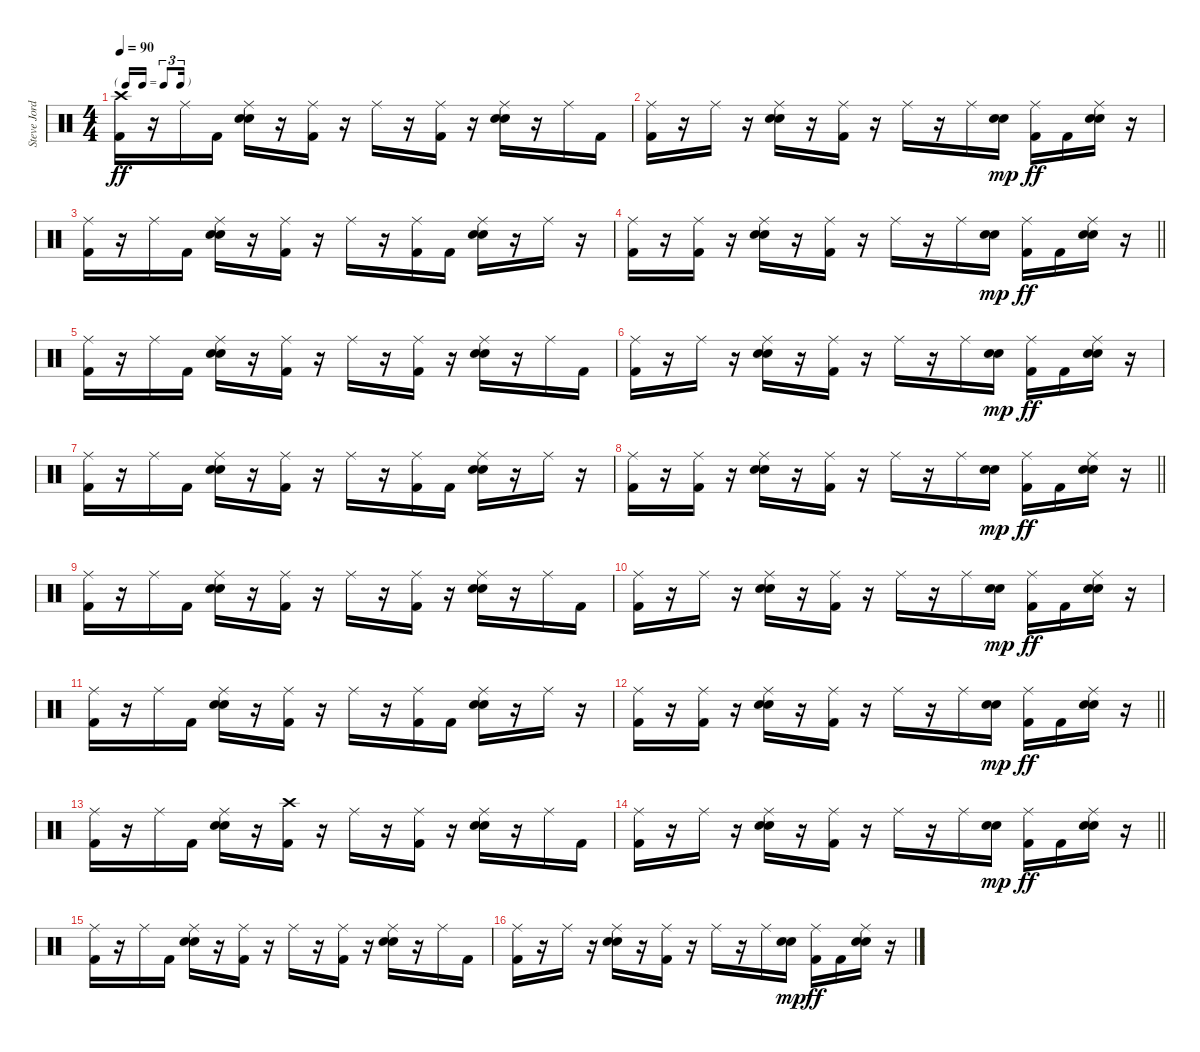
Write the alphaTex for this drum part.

\track ("Steve Jordan" "Steve Jord") {instrument percussion}
\staff {score}
\articulation defaults
\ts (4 4)
\tf triplet16th
\tempo 90
\clef neutral
\ks c
("Crash high (hit)" "Kick (hit) 2").16{dy ff} r.16 "Ride (middle)".16 "Kick (hit) 2".16 ("Ride (middle)" "Electric Snare (hit)" "Snare (hit) 2").16 r.16 ("Ride (middle)" "Kick (hit) 2").16 r.16 "Ride (middle)".16 r.16 ("Ride (middle)" "Kick (hit) 2").16 r.16 ("Ride (middle)" "Electric Snare (hit)" "Snare (hit) 2").16 r.16 "Ride (middle)".16 "Kick (hit) 2".16 |
("Ride (middle)" "Kick (hit) 2").16 r.16 "Ride (middle)".16 r.16 ("Ride (middle)" "Electric Snare (hit)" "Snare (hit) 2").16 r.16 ("Ride (middle)" "Kick (hit) 2").16 r.16 "Ride (middle)".16 r.16 "Ride (middle)".16 ("Electric Snare (hit)" "Snare (hit) 2").16{dy mp} ("Ride (middle)" "Kick (hit) 2").16{dy ff} "Kick (hit) 2".16 ("Ride (middle)" "Electric Snare (hit)" "Snare (hit) 2").16 r.16 |
("Ride (middle)" "Kick (hit) 2").16 r.16 "Ride (middle)".16 "Kick (hit) 2".16 ("Ride (middle)" "Electric Snare (hit)" "Snare (hit) 2").16 r.16 ("Ride (middle)" "Kick (hit) 2").16 r.16 "Ride (middle)".16 r.16 ("Ride (middle)" "Kick (hit) 2").16 "Kick (hit) 2".16 ("Ride (middle)" "Electric Snare (hit)" "Snare (hit) 2").16 r.16 "Ride (middle)".16 r.16 |
\barLineRight lightlight
("Ride (middle)" "Kick (hit) 2").16 r.16 ("Ride (middle)" "Kick (hit) 2").16 r.16 ("Ride (middle)" "Electric Snare (hit)" "Snare (hit) 2").16 r.16 ("Ride (middle)" "Kick (hit) 2").16 r.16 "Ride (middle)".16 r.16 "Ride (middle)".16 ("Electric Snare (hit)" "Snare (hit) 2").16{dy mp} ("Ride (middle)" "Kick (hit) 2").16{dy ff} "Kick (hit) 2".16 ("Ride (middle)" "Electric Snare (hit)" "Snare (hit) 2").16 r.16 |
("Ride (middle)" "Kick (hit) 2").16 r.16 "Ride (middle)".16 "Kick (hit) 2".16 ("Ride (middle)" "Electric Snare (hit)" "Snare (hit) 2").16 r.16 ("Ride (middle)" "Kick (hit) 2").16 r.16 "Ride (middle)".16 r.16 ("Ride (middle)" "Kick (hit) 2").16 r.16 ("Ride (middle)" "Electric Snare (hit)" "Snare (hit) 2").16 r.16 "Ride (middle)".16 "Kick (hit) 2".16 |
("Ride (middle)" "Kick (hit) 2").16 r.16 "Ride (middle)".16 r.16 ("Ride (middle)" "Electric Snare (hit)" "Snare (hit) 2").16 r.16 ("Ride (middle)" "Kick (hit) 2").16 r.16 "Ride (middle)".16 r.16 "Ride (middle)".16 ("Electric Snare (hit)" "Snare (hit) 2").16{dy mp} ("Ride (middle)" "Kick (hit) 2").16{dy ff} "Kick (hit) 2".16 ("Ride (middle)" "Electric Snare (hit)" "Snare (hit) 2").16 r.16 |
("Ride (middle)" "Kick (hit) 2").16 r.16 "Ride (middle)".16 "Kick (hit) 2".16 ("Ride (middle)" "Electric Snare (hit)" "Snare (hit) 2").16 r.16 ("Ride (middle)" "Kick (hit) 2").16 r.16 "Ride (middle)".16 r.16 ("Ride (middle)" "Kick (hit) 2").16 "Kick (hit) 2".16 ("Ride (middle)" "Electric Snare (hit)" "Snare (hit) 2").16 r.16 "Ride (middle)".16 r.16 |
\barLineRight lightlight
("Ride (middle)" "Kick (hit) 2").16 r.16 ("Ride (middle)" "Kick (hit) 2").16 r.16 ("Ride (middle)" "Electric Snare (hit)" "Snare (hit) 2").16 r.16 ("Ride (middle)" "Kick (hit) 2").16 r.16 "Ride (middle)".16 r.16 "Ride (middle)".16 ("Electric Snare (hit)" "Snare (hit) 2").16{dy mp} ("Ride (middle)" "Kick (hit) 2").16{dy ff} "Kick (hit) 2".16 ("Ride (middle)" "Electric Snare (hit)" "Snare (hit) 2").16 r.16 |
("Ride (middle)" "Kick (hit) 2").16 r.16 "Ride (middle)".16 "Kick (hit) 2".16 ("Ride (middle)" "Electric Snare (hit)" "Snare (hit) 2").16 r.16 ("Ride (middle)" "Kick (hit) 2").16 r.16 "Ride (middle)".16 r.16 ("Ride (middle)" "Kick (hit) 2").16 r.16 ("Ride (middle)" "Electric Snare (hit)" "Snare (hit) 2").16 r.16 "Ride (middle)".16 "Kick (hit) 2".16 |
("Ride (middle)" "Kick (hit) 2").16 r.16 "Ride (middle)".16 r.16 ("Ride (middle)" "Electric Snare (hit)" "Snare (hit) 2").16 r.16 ("Ride (middle)" "Kick (hit) 2").16 r.16 "Ride (middle)".16 r.16 "Ride (middle)".16 ("Electric Snare (hit)" "Snare (hit) 2").16{dy mp} ("Ride (middle)" "Kick (hit) 2").16{dy ff} "Kick (hit) 2".16 ("Ride (middle)" "Electric Snare (hit)" "Snare (hit) 2").16 r.16 |
("Ride (middle)" "Kick (hit) 2").16 r.16 "Ride (middle)".16 "Kick (hit) 2".16 ("Ride (middle)" "Electric Snare (hit)" "Snare (hit) 2").16 r.16 ("Ride (middle)" "Kick (hit) 2").16 r.16 "Ride (middle)".16 r.16 ("Ride (middle)" "Kick (hit) 2").16 "Kick (hit) 2".16 ("Ride (middle)" "Electric Snare (hit)" "Snare (hit) 2").16 r.16 "Ride (middle)".16 r.16 |
\barLineRight lightlight
("Ride (middle)" "Kick (hit) 2").16 r.16 ("Ride (middle)" "Kick (hit) 2").16 r.16 ("Ride (middle)" "Electric Snare (hit)" "Snare (hit) 2").16 r.16 ("Ride (middle)" "Kick (hit) 2").16 r.16 "Ride (middle)".16 r.16 "Ride (middle)".16 ("Electric Snare (hit)" "Snare (hit) 2").16{dy mp} ("Ride (middle)" "Kick (hit) 2").16{dy ff} "Kick (hit) 2".16 ("Ride (middle)" "Electric Snare (hit)" "Snare (hit) 2").16 r.16 |
("Ride (middle)" "Kick (hit) 2").16 r.16 "Ride (middle)".16 "Kick (hit) 2".16 ("Ride (middle)" "Electric Snare (hit)" "Snare (hit) 2").16 r.16 ("Crash high (hit)" "Kick (hit) 2").16 r.16 "Ride (middle)".16 r.16 ("Ride (middle)" "Kick (hit) 2").16 r.16 ("Ride (middle)" "Electric Snare (hit)" "Snare (hit) 2").16 r.16 "Ride (middle)".16 "Kick (hit) 2".16 |
\barLineRight lightlight
("Ride (middle)" "Kick (hit) 2").16 r.16 "Ride (middle)".16 r.16 ("Ride (middle)" "Electric Snare (hit)" "Snare (hit) 2").16 r.16 ("Ride (middle)" "Kick (hit) 2").16 r.16 "Ride (middle)".16 r.16 "Ride (middle)".16 ("Electric Snare (hit)" "Snare (hit) 2").16{dy mp} ("Ride (middle)" "Kick (hit) 2").16{dy ff} "Kick (hit) 2".16 ("Ride (middle)" "Electric Snare (hit)" "Snare (hit) 2").16 r.16 |
("Ride (middle)" "Kick (hit) 2").16 r.16 "Ride (middle)".16 "Kick (hit) 2".16 ("Ride (middle)" "Electric Snare (hit)" "Snare (hit) 2").16 r.16 ("Ride (middle)" "Kick (hit) 2").16 r.16 "Ride (middle)".16 r.16 ("Ride (middle)" "Kick (hit) 2").16 r.16 ("Ride (middle)" "Electric Snare (hit)" "Snare (hit) 2").16 r.16 "Ride (middle)".16 "Kick (hit) 2".16 |
("Ride (middle)" "Kick (hit) 2").16 r.16 "Ride (middle)".16 r.16 ("Ride (middle)" "Electric Snare (hit)" "Snare (hit) 2").16 r.16 ("Ride (middle)" "Kick (hit) 2").16 r.16 "Ride (middle)".16 r.16 "Ride (middle)".16 ("Electric Snare (hit)" "Snare (hit) 2").16{dy mp} ("Ride (middle)" "Kick (hit) 2").16{dy ff} "Kick (hit) 2".16 ("Ride (middle)" "Electric Snare (hit)" "Snare (hit) 2").16 r.16
